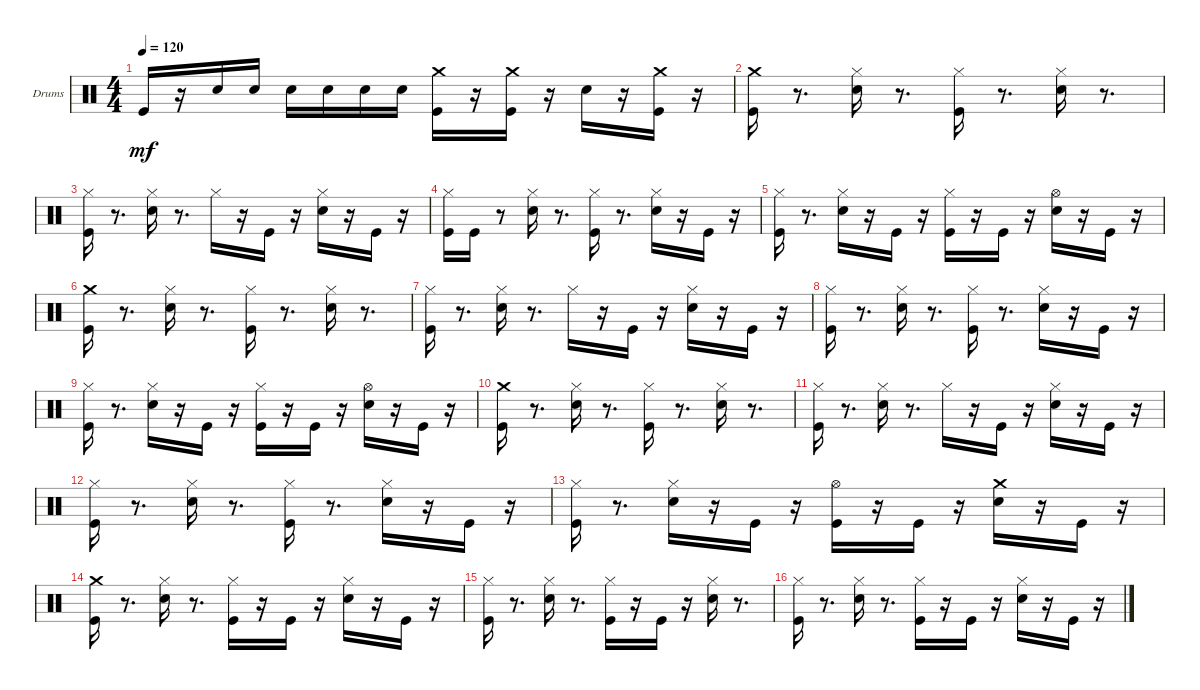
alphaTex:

\bracketExtendMode groupsimilarinstruments
\firstSystemTrackNameOrientation horizontal
\otherSystemsTrackNameOrientation horizontal
\track ("Drumkit" "Drums") {instrument percussion}
\staff {score}
\articulation defaults
\ts (4 4)
\tempo 120
\clef neutral
\ks aminor "Kick (hit)".16{dy mf}
r.16 "Snare (hit) 2".16 "Snare (hit) 2".16 "Snare (hit) 2".16 "Snare (hit) 2".16 "Snare (hit) 2".16 "Snare (hit) 2".16 ("Kick (hit)" "Crash medium (hit)").16 r.16 ("Kick (hit)" "Crash medium (hit)").16 r.16 "Snare (hit) 2".16 r.16 ("Kick (hit)" "Crash medium (hit)").16 r.16 |
("Kick (hit)" "Crash medium (hit)").16 r.8{d} ("Snare (hit) 2" "Hi-Hat (closed)").16 r.8{d} ("Kick (hit)" "Hi-Hat (closed)").16 r.8{d} ("Snare (hit) 2" "Hi-Hat (closed)").16 r.8{d} |
("Kick (hit)" "Hi-Hat (closed)").16 r.8{d} ("Snare (hit) 2" "Hi-Hat (closed)").16 r.8{d} "Hi-Hat (closed)".16 r.16 "Kick (hit)".16 r.16 ("Snare (hit) 2" "Hi-Hat (closed)").16 r.16 "Kick (hit)".16 r.16 |
("Kick (hit)" "Hi-Hat (closed)").16 "Kick (hit)".16 r.8 ("Snare (hit) 2" "Hi-Hat (closed)").16 r.8{d} ("Kick (hit)" "Hi-Hat (closed)").16 r.8{d} ("Snare (hit) 2" "Hi-Hat (closed)").16 r.16 "Kick (hit)".16 r.16 |
("Kick (hit)" "Hi-Hat (closed)").16 r.8{d} ("Snare (hit) 2" "Hi-Hat (closed)").16 r.16 "Kick (hit)".16 r.16 ("Kick (hit)" "Hi-Hat (closed)").16 r.16 "Kick (hit)".16 r.16 ("Snare (hit) 2" "Hi-Hat (open)").16 r.16 "Kick (hit)".16 r.16 |
("Kick (hit)" "Crash medium (hit)").16 r.8{d} ("Snare (hit) 2" "Hi-Hat (closed)").16 r.8{d} ("Kick (hit)" "Hi-Hat (closed)").16 r.8{d} ("Snare (hit) 2" "Hi-Hat (closed)").16 r.8{d} |
("Kick (hit)" "Hi-Hat (closed)").16 r.8{d} ("Snare (hit) 2" "Hi-Hat (closed)").16 r.8{d} "Hi-Hat (closed)".16 r.16 "Kick (hit)".16 r.16 ("Snare (hit) 2" "Hi-Hat (closed)").16 r.16 "Kick (hit)".16 r.16 |
("Kick (hit)" "Hi-Hat (closed)").16 r.8{d} ("Snare (hit) 2" "Hi-Hat (closed)").16 r.8{d} ("Kick (hit)" "Hi-Hat (closed)").16 r.8{d} ("Snare (hit) 2" "Hi-Hat (closed)").16 r.16 "Kick (hit)".16 r.16 |
("Kick (hit)" "Hi-Hat (closed)").16 r.8{d} ("Snare (hit) 2" "Hi-Hat (closed)").16 r.16 "Kick (hit)".16 r.16 ("Kick (hit)" "Hi-Hat (closed)").16 r.16 "Kick (hit)".16 r.16 ("Snare (hit) 2" "Hi-Hat (open)").16 r.16 "Kick (hit)".16 r.16 |
("Kick (hit)" "Crash medium (hit)").16 r.8{d} ("Snare (hit) 2" "Hi-Hat (closed)").16 r.8{d} ("Kick (hit)" "Hi-Hat (closed)").16 r.8{d} ("Snare (hit) 2" "Hi-Hat (closed)").16 r.8{d} |
("Kick (hit)" "Hi-Hat (closed)").16 r.8{d} ("Snare (hit) 2" "Hi-Hat (closed)").16 r.8{d} "Hi-Hat (closed)".16 r.16 "Kick (hit)".16 r.16 ("Snare (hit) 2" "Hi-Hat (closed)").16 r.16 "Kick (hit)".16 r.16 |
("Kick (hit)" "Hi-Hat (closed)").16 r.8{d} ("Snare (hit) 2" "Hi-Hat (closed)").16 r.8{d} ("Kick (hit)" "Hi-Hat (closed)").16 r.8{d} ("Snare (hit) 2" "Hi-Hat (closed)").16 r.16 "Kick (hit)".16 r.16 |
("Kick (hit)" "Hi-Hat (closed)").16 r.8{d} ("Snare (hit) 2" "Hi-Hat (closed)").16 r.16 "Kick (hit)".16 r.16 ("Kick (hit)" "Hi-Hat (open)").16 r.16 "Kick (hit)".16 r.16 ("Snare (hit) 2" "Crash medium (hit)").16 r.16 "Kick (hit)".16 r.16 |
("Kick (hit)" "Crash medium (hit)").16 r.8{d} ("Snare (hit) 2" "Hi-Hat (closed)").16 r.8{d} ("Kick (hit)" "Hi-Hat (closed)").16 r.16 "Kick (hit)".16 r.16 ("Snare (hit) 2" "Hi-Hat (closed)").16 r.16 "Kick (hit)".16 r.16 |
("Kick (hit)" "Hi-Hat (closed)").16 r.8{d} ("Snare (hit) 2" "Hi-Hat (closed)").16 r.8{d} ("Kick (hit)" "Hi-Hat (closed)").16 r.16 "Kick (hit)".16 r.16 ("Snare (hit) 2" "Hi-Hat (closed)").16 r.8{d} |
("Kick (hit)" "Hi-Hat (closed)").16 r.8{d} ("Snare (hit) 2" "Hi-Hat (closed)").16 r.8{d} ("Kick (hit)" "Hi-Hat (closed)").16 r.16 "Kick (hit)".16 r.16 ("Snare (hit) 2" "Hi-Hat (closed)").16 r.16 "Kick (hit)".16 r.16
